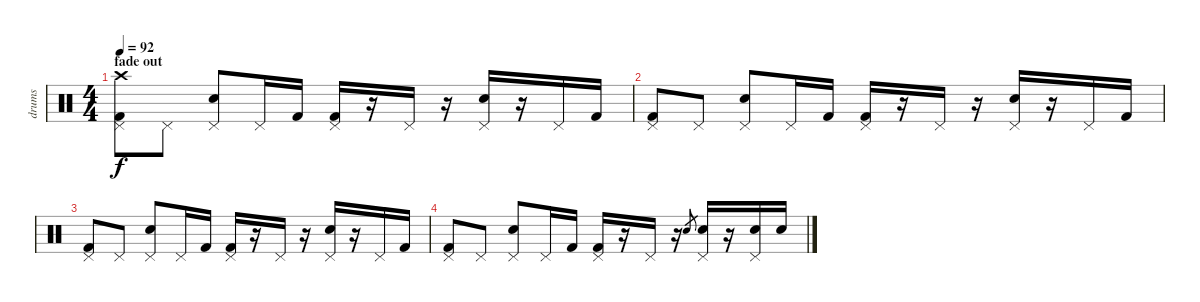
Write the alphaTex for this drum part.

\track ("drums" "drums") {instrument percussion}
\staff {score}
\articulation defaults
\ts (4 4)
\section ("" "fade out")
\tempo 92
\clef neutral
\ks c
("Kick (hit) 2" "Pedal Hi-Hat (hit)" "Crash high (hit)").8{dy f} "Pedal Hi-Hat (hit)".8 ("Electric Snare (hit)" "Pedal Hi-Hat (hit)").8 "Pedal Hi-Hat (hit)".16 "Kick (hit) 2".16 ("Kick (hit) 2" "Pedal Hi-Hat (hit)").16 r.16 "Pedal Hi-Hat (hit)".16 r.16 ("Electric Snare (hit)" "Pedal Hi-Hat (hit)").16 r.16 "Pedal Hi-Hat (hit)".16 "Kick (hit) 2".16 |
("Kick (hit) 2" "Pedal Hi-Hat (hit)").8 "Pedal Hi-Hat (hit)".8 ("Electric Snare (hit)" "Pedal Hi-Hat (hit)").8 "Pedal Hi-Hat (hit)".16 "Kick (hit) 2".16 ("Kick (hit) 2" "Pedal Hi-Hat (hit)").16 r.16 "Pedal Hi-Hat (hit)".16 r.16 ("Electric Snare (hit)" "Pedal Hi-Hat (hit)").16 r.16 "Pedal Hi-Hat (hit)".16 "Kick (hit) 2".16 |
("Kick (hit) 2" "Pedal Hi-Hat (hit)").8 "Pedal Hi-Hat (hit)".8 ("Electric Snare (hit)" "Pedal Hi-Hat (hit)").8 "Pedal Hi-Hat (hit)".16 "Kick (hit) 2".16 ("Kick (hit) 2" "Pedal Hi-Hat (hit)").16 r.16 "Pedal Hi-Hat (hit)".16 r.16 ("Electric Snare (hit)" "Pedal Hi-Hat (hit)").16 r.16 "Pedal Hi-Hat (hit)".16 "Kick (hit) 2".16 |
("Kick (hit) 2" "Pedal Hi-Hat (hit)").8 "Pedal Hi-Hat (hit)".8 ("Electric Snare (hit)" "Pedal Hi-Hat (hit)").8 "Pedal Hi-Hat (hit)".16 "Kick (hit) 2".16 ("Kick (hit) 2" "Pedal Hi-Hat (hit)").16 r.16 "Pedal Hi-Hat (hit)".16 r.16 "Electric Snare (hit)".8{gr} ("Electric Snare (hit)" "Pedal Hi-Hat (hit)").16 r.16 ("Electric Snare (hit)" "Pedal Hi-Hat (hit)").16 "Electric Snare (hit)".16
